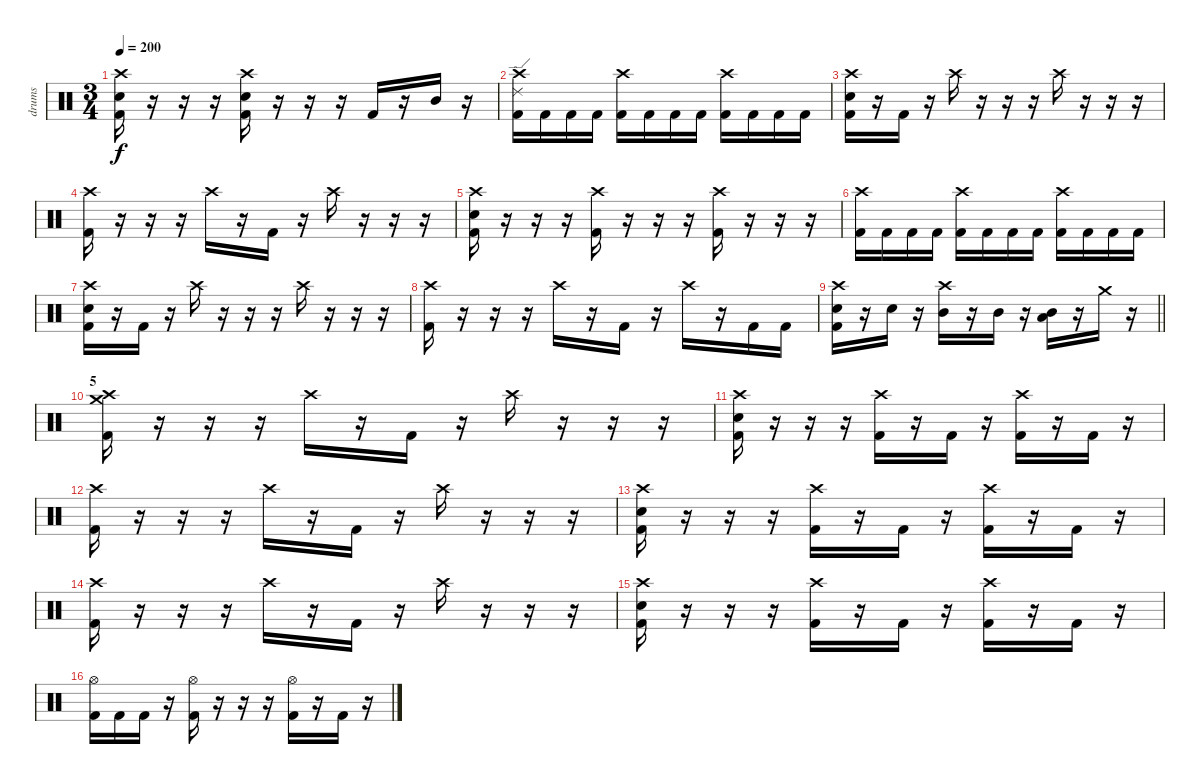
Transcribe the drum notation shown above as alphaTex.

\track ("drums" "drums") {instrument percussion}
\staff {score}
\articulation defaults
\ts (3 4)
\tempo 200
\clef neutral
\ks c
("Crash high (hit)" "Electric Snare (hit)" "Kick (hit) 2").16{dy f} r.16 r.16 r.16 ("Crash high (hit)" "Kick (hit) 2" "Electric Snare (hit)").16 r.16 r.16 r.16 "Kick (hit) 2".16 r.16 "Mid Tom (hit)".16 r.16 |
("Crash high (hit)" "Ride (edge) 2" "Kick (hit) 2").16 "Kick (hit) 2".16 "Kick (hit) 2".16 "Kick (hit) 2".16 ("Crash high (hit)" "Kick (hit) 2").16 "Kick (hit) 2".16 "Kick (hit) 2".16 "Kick (hit) 2".16 ("Kick (hit) 2" "Crash high (hit)").16 "Kick (hit) 2".16 "Kick (hit) 2".16 "Kick (hit) 2".16 |
("Crash high (hit)" "Electric Snare (hit)" "Kick (hit) 2").16 r.16 "Kick (hit) 2".16 r.16 "Crash high (hit)".16 r.16 r.16 r.16 "Crash high (hit)".16 r.16 r.16 r.16 |
("Crash high (hit)" "Kick (hit) 2").16 r.16 r.16 r.16 "Crash high (hit)".16 r.16 "Kick (hit) 2".16 r.16 "Crash high (hit)".16 r.16 r.16 r.16 |
("Crash high (hit)" "Electric Snare (hit)" "Kick (hit) 2").16 r.16 r.16 r.16 ("Crash high (hit)" "Kick (hit) 2").16 r.16 r.16 r.16 ("Crash high (hit)" "Kick (hit) 2").16 r.16 r.16 r.16 |
("Crash high (hit)" "Kick (hit) 2").16 "Kick (hit) 2".16 "Kick (hit) 2".16 "Kick (hit) 2".16 ("Crash high (hit)" "Kick (hit) 2").16 "Kick (hit) 2".16 "Kick (hit) 2".16 "Kick (hit) 2".16 ("Kick (hit) 2" "Crash high (hit)").16 "Kick (hit) 2".16 "Kick (hit) 2".16 "Kick (hit) 2".16 |
("Crash high (hit)" "Electric Snare (hit)" "Kick (hit) 2").16 r.16 "Kick (hit) 2".16 r.16 "Crash high (hit)".16 r.16 r.16 r.16 "Crash high (hit)".16 r.16 r.16 r.16 |
("Crash high (hit)" "Kick (hit) 2").16 r.16 r.16 r.16 "Crash high (hit)".16 r.16 "Kick (hit) 2".16 r.16 "Crash high (hit)".16 r.16 "Kick (hit) 2".16 "Kick (hit) 2".16 |
\barLineRight lightlight
("Crash high (hit)" "Electric Snare (hit)" "Kick (hit) 2").16 r.16 "Electric Snare (hit)".16 r.16 ("Crash high (hit)" "Mid Tom (hit)").16 r.16 "Mid Tom (hit)".16 r.16 ("Mid Tom (hit)" "Low Tom (hit)").16 r.16 "Crash medium (hit)".16 r.16 |
\section ("" "5")
("Kick (hit) 2" "Crash high (hit)" "Crash medium (hit)").16 r.16 r.16 r.16 "Crash high (hit)".16 r.16 "Kick (hit) 2".16 r.16 "Crash high (hit)".16 r.16 r.16 r.16 |
("Crash high (hit)" "Electric Snare (hit)" "Kick (hit) 2").16 r.16 r.16 r.16 ("Crash high (hit)" "Kick (hit) 2").16 r.16 "Kick (hit) 2".16 r.16 ("Crash high (hit)" "Kick (hit) 2").16 r.16 "Kick (hit) 2".16 r.16 |
("Kick (hit) 2" "Crash high (hit)").16 r.16 r.16 r.16 "Crash high (hit)".16 r.16 "Kick (hit) 2".16 r.16 "Crash high (hit)".16 r.16 r.16 r.16 |
("Crash high (hit)" "Electric Snare (hit)" "Kick (hit) 2").16 r.16 r.16 r.16 ("Crash high (hit)" "Kick (hit) 2").16 r.16 "Kick (hit) 2".16 r.16 ("Crash high (hit)" "Kick (hit) 2").16 r.16 "Kick (hit) 2".16 r.16 |
("Kick (hit) 2" "Crash high (hit)").16 r.16 r.16 r.16 "Crash high (hit)".16 r.16 "Kick (hit) 2".16 r.16 "Crash high (hit)".16 r.16 r.16 r.16 |
("Crash high (hit)" "Electric Snare (hit)" "Kick (hit) 2").16 r.16 r.16 r.16 ("Crash high (hit)" "Kick (hit) 2").16 r.16 "Kick (hit) 2".16 r.16 ("Crash high (hit)" "Kick (hit) 2").16 r.16 "Kick (hit) 2".16 r.16 |
("Kick (hit) 2" "Hi-Hat (open)").16 "Kick (hit) 2".16 "Kick (hit) 2".16 r.16 ("Hi-Hat (open)" "Kick (hit) 2").16 r.16 r.16 r.16 ("Hi-Hat (open)" "Kick (hit) 2").16 r.16 "Kick (hit) 2".16 r.16
